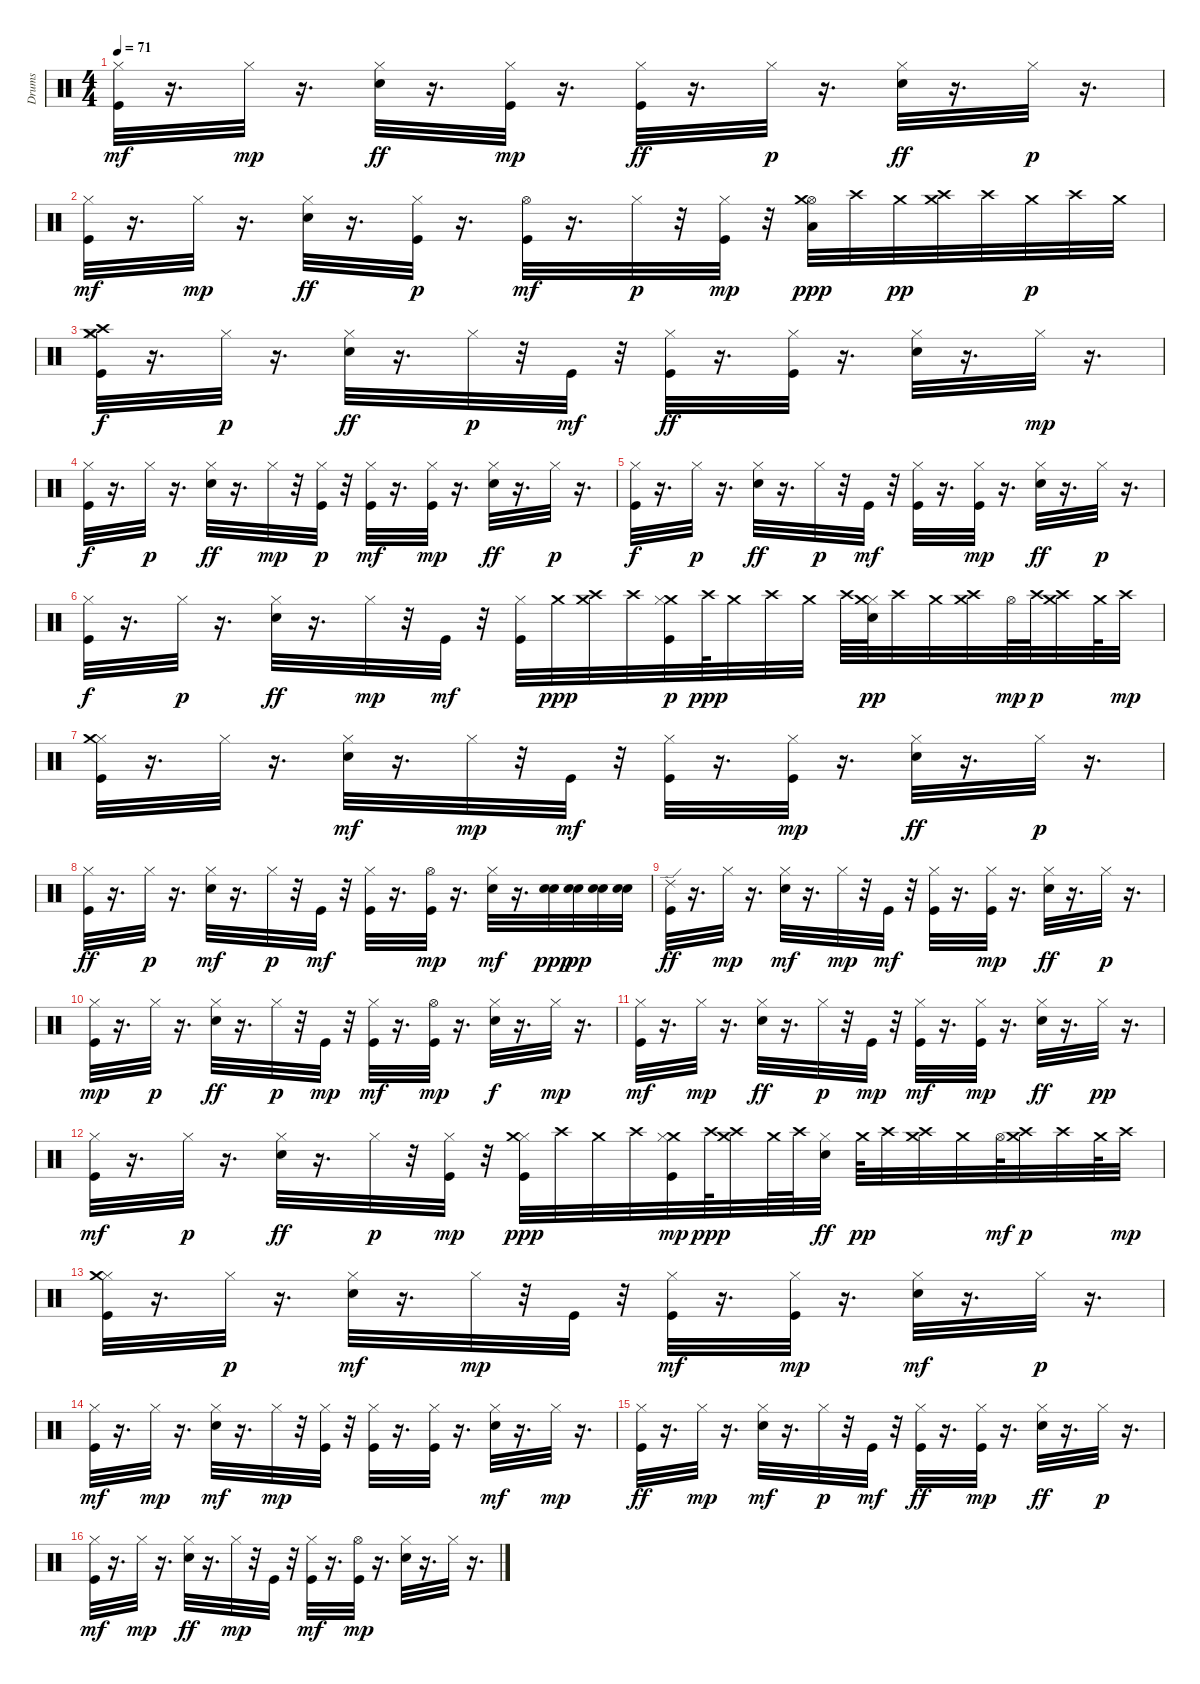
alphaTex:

\track ("Drums" "Drums") {instrument percussion}
\staff {score}
\articulation defaults
\ts (4 4)
\tempo 71
\clef neutral
\ks c
("Kick (hit)" "Hi-Hat (closed)").32{dy mf} r.16{d} "Hi-Hat (closed)".32{dy mp} r.16{d} ("Hi-Hat (closed)" "Snare (hit) 2").32{dy ff} r.16{d} ("Kick (hit)" "Hi-Hat (closed)").32{dy mp} r.16{d} ("Hi-Hat (closed)" "Kick (hit)").32{dy ff} r.16{d} "Hi-Hat (closed)".32{dy p} r.16{d} ("Hi-Hat (closed)" "Snare (hit) 2").32{dy ff} r.16{d} "Hi-Hat (closed)".32{dy p} r.16{d} |
("Kick (hit)" "Hi-Hat (closed)").32{dy mf} r.16{d} "Hi-Hat (closed)".32{dy mp} r.16{d} ("Hi-Hat (closed)" "Snare (hit) 2").32{dy ff} r.16{d} ("Kick (hit)" "Hi-Hat (closed)").32{dy p} r.16{d} ("Kick (hit)" "Hi-Hat (open)").32{dy mf} r.16{d} "Hi-Hat (closed)".32{dy p} r.32 ("Kick (hit)" "Hi-Hat (closed)").32{dy mp} r.32 ("Low Tom (hit)" "Hi-Hat (open)" "Crash medium (hit)").32{dy ppp} "Crash high (hit)".32 "Crash medium (hit)".32{dy pp} ("Crash high (hit)" "Crash medium (hit)").32 "Crash high (hit)".32 "Crash medium (hit)".32{dy p} "Crash high (hit)".32 "Crash medium (hit)".32 |
("Crash high (hit)" "Kick (hit)" "Hi-Hat (closed)" "Crash medium (hit)").32{dy f} r.16{d} "Hi-Hat (closed)".32{dy p} r.16{d} ("Snare (hit) 2" "Hi-Hat (closed)").32{dy ff} r.16{d} "Hi-Hat (closed)".32{dy p} r.32 "Kick (hit)".32{dy mf} r.32 ("Hi-Hat (closed)" "Kick (hit)").32{dy ff} r.16{d} ("Hi-Hat (closed)" "Kick (hit)").32 r.16{d} ("Hi-Hat (closed)" "Snare (hit) 2").32 r.16{d} "Hi-Hat (closed)".32{dy mp} r.16{d} |
("Hi-Hat (closed)" "Kick (hit)").32{dy f} r.16{d} "Hi-Hat (closed)".32{dy p} r.16{d} ("Hi-Hat (closed)" "Snare (hit) 2").32{dy ff} r.16{d} "Hi-Hat (closed)".32{dy mp} r.32 ("Kick (hit)" "Hi-Hat (closed)").32{dy p} r.32 ("Kick (hit)" "Hi-Hat (closed)").32{dy mf} r.16{d} ("Kick (hit)" "Hi-Hat (closed)").32{dy mp} r.16{d} ("Hi-Hat (closed)" "Snare (hit) 2").32{dy ff} r.16{d} "Hi-Hat (closed)".32{dy p} r.16{d} |
("Hi-Hat (closed)" "Kick (hit)").32{dy f} r.16{d} "Hi-Hat (closed)".32{dy p} r.16{d} ("Hi-Hat (closed)" "Snare (hit) 2").32{dy ff} r.16{d} "Hi-Hat (closed)".32{dy p} r.32 "Kick (hit)".32{dy mf} r.32 ("Kick (hit)" "Hi-Hat (closed)").32 r.16{d} ("Kick (hit)" "Hi-Hat (closed)").32{dy mp} r.16{d} ("Hi-Hat (closed)" "Snare (hit) 2").32{dy ff} r.16{d} "Hi-Hat (closed)".32{dy p} r.16{d} |
("Kick (hit)" "Hi-Hat (closed)").32{dy f} r.16{d} "Hi-Hat (closed)".32{dy p} r.16{d} ("Hi-Hat (closed)" "Snare (hit) 2").32{dy ff} r.16{d} "Hi-Hat (closed)".32{dy mp} r.32 "Kick (hit)".32{dy mf} r.32 ("Kick (hit)" "Hi-Hat (closed)").32 "Crash medium (hit)".32{dy ppp} ("Crash high (hit)" "Crash medium (hit)").32 "Crash high (hit)".32 ("Crash medium (hit)" "Kick (hit)" "Hi-Hat (closed)").32{dy p} "Crash high (hit)".64{dy ppp} "Crash medium (hit)".32 "Crash high (hit)".32 "Crash medium (hit)".32 "Crash high (hit)".64 ("Snare (hit) 2" "Hi-Hat (closed)" "Crash medium (hit)").64{dy pp} "Crash high (hit)".32 "Crash medium (hit)".32 ("Crash high (hit)" "Crash medium (hit)").32 "Hi-Hat (open)".64{dy mp} "Crash high (hit)".64{dy p} ("Crash medium (hit)" "Crash high (hit)").32 "Crash medium (hit)".64 "Crash high (hit)".32{dy mp} |
("Kick (hit)" "Hi-Hat (closed)" "Crash medium (hit)").32 r.16{d} "Hi-Hat (closed)".32 r.16{d} ("Snare (hit) 2" "Hi-Hat (closed)").32{dy mf} r.16{d} "Hi-Hat (closed)".32{dy mp} r.32 "Kick (hit)".32{dy mf} r.32 ("Kick (hit)" "Hi-Hat (closed)").32 r.16{d} ("Kick (hit)" "Hi-Hat (closed)").32{dy mp} r.16{d} ("Hi-Hat (closed)" "Snare (hit) 2").32{dy ff} r.16{d} "Hi-Hat (closed)".32{dy p} r.16{d} |
("Hi-Hat (closed)" "Kick (hit)").32{dy ff} r.16{d} "Hi-Hat (closed)".32{dy p} r.16{d} ("Hi-Hat (closed)" "Snare (hit) 2").32{dy mf} r.16{d} "Hi-Hat (closed)".32{dy p} r.32 "Kick (hit)".32{dy mf} r.32 ("Kick (hit)" "Hi-Hat (closed)").32 r.16{d} ("Kick (hit)" "Hi-Hat (open)").32{dy mp} r.16{d} ("Snare (hit) 2" "Hi-Hat (closed)").32{dy mf} r.16{d} ("Snare (hit) 2" "Snare (hit) 2").32{dy ppp} ("Snare (hit) 2" "Snare (hit) 2").32{dy pp} ("Snare (hit) 2" "Snare (hit) 2").32 ("Snare (hit) 2" "Snare (hit) 2").32 |
("Kick (hit)" "Ride (edge) 2").32{dy ff} r.16{d} "Hi-Hat (closed)".32{dy mp} r.16{d} ("Snare (hit) 2" "Hi-Hat (closed)").32{dy mf} r.16{d} "Hi-Hat (closed)".32{dy mp} r.32 "Kick (hit)".32{dy mf} r.32 ("Kick (hit)" "Hi-Hat (closed)").32 r.16{d} ("Kick (hit)" "Hi-Hat (closed)").32{dy mp} r.16{d} ("Hi-Hat (closed)" "Snare (hit) 2").32{dy ff} r.16{d} "Hi-Hat (closed)".32{dy p} r.16{d} |
("Hi-Hat (closed)" "Kick (hit)").32{dy mp} r.16{d} "Hi-Hat (closed)".32{dy p} r.16{d} ("Hi-Hat (closed)" "Snare (hit) 2").32{dy ff} r.16{d} "Hi-Hat (closed)".32{dy p} r.32 "Kick (hit)".32{dy mp} r.32 ("Kick (hit)" "Hi-Hat (closed)").32{dy mf} r.16{d} ("Kick (hit)" "Hi-Hat (open)").32{dy mp} r.16{d} ("Hi-Hat (closed)" "Snare (hit) 2").32{dy f} r.16{d} "Hi-Hat (closed)".32{dy mp} r.16{d} |
("Kick (hit)" "Hi-Hat (closed)").32{dy mf} r.16{d} "Hi-Hat (closed)".32{dy mp} r.16{d} ("Hi-Hat (closed)" "Snare (hit) 2").32{dy ff} r.16{d} "Hi-Hat (closed)".32{dy p} r.32 "Kick (hit)".32{dy mp} r.32 ("Kick (hit)" "Hi-Hat (closed)").32{dy mf} r.16{d} ("Kick (hit)" "Hi-Hat (closed)").32{dy mp} r.16{d} ("Hi-Hat (closed)" "Snare (hit) 2").32{dy ff} r.16{d} "Hi-Hat (closed)".32{dy pp} r.16{d} |
("Kick (hit)" "Hi-Hat (closed)").32{dy mf} r.16{d} "Hi-Hat (closed)".32{dy p} r.16{d} ("Hi-Hat (closed)" "Snare (hit) 2").32{dy ff} r.16{d} "Hi-Hat (closed)".32{dy p} r.32 ("Hi-Hat (closed)" "Kick (hit)").32{dy mp} r.32 ("Hi-Hat (closed)" "Kick (hit)" "Crash medium (hit)").32{dy ppp} "Crash high (hit)".32 "Crash medium (hit)".32 "Crash high (hit)".32 ("Crash medium (hit)" "Hi-Hat (closed)" "Kick (hit)").32{dy mp} "Crash high (hit)".64{dy ppp} ("Crash medium (hit)" "Crash high (hit)").32 "Crash medium (hit)".64 "Crash high (hit)".64 ("Hi-Hat (closed)" "Snare (hit) 2").32{dy ff} "Crash medium (hit)".64{dy pp} "Crash high (hit)".32 ("Crash medium (hit)" "Crash high (hit)").32 "Crash medium (hit)".32 "Hi-Hat (open)".64{dy mf} ("Crash high (hit)" "Crash medium (hit)").32{dy p} "Crash high (hit)".32 "Crash medium (hit)".64 "Crash high (hit)".32{dy mp} |
("Kick (hit)" "Hi-Hat (closed)" "Crash medium (hit)").32 r.16{d} "Hi-Hat (closed)".32{dy p} r.16{d} ("Snare (hit) 2" "Hi-Hat (closed)").32{dy mf} r.16{d} "Hi-Hat (closed)".32{dy mp} r.32 "Kick (hit)".32 r.32 ("Kick (hit)" "Hi-Hat (closed)").32{dy mf} r.16{d} ("Kick (hit)" "Hi-Hat (closed)").32{dy mp} r.16{d} ("Hi-Hat (closed)" "Snare (hit) 2").32{dy mf} r.16{d} "Hi-Hat (closed)".32{dy p} r.16{d} |
("Kick (hit)" "Hi-Hat (closed)").32{dy mf} r.16{d} "Hi-Hat (closed)".32{dy mp} r.16{d} ("Hi-Hat (closed)" "Snare (hit) 2").32{dy mf} r.16{d} "Hi-Hat (closed)".32{dy mp} r.32 ("Kick (hit)" "Hi-Hat (closed)").32 r.32 ("Kick (hit)" "Hi-Hat (closed)").32 r.16{d} ("Kick (hit)" "Hi-Hat (closed)").32 r.16{d} ("Snare (hit) 2" "Hi-Hat (closed)").32{dy mf} r.16{d} "Hi-Hat (closed)".32{dy mp} r.16{d} |
("Hi-Hat (closed)" "Kick (hit)").32{dy ff} r.16{d} "Hi-Hat (closed)".32{dy mp} r.16{d} ("Hi-Hat (closed)" "Snare (hit) 2").32{dy mf} r.16{d} "Hi-Hat (closed)".32{dy p} r.32 "Kick (hit)".32{dy mf} r.32 ("Hi-Hat (closed)" "Kick (hit)").32{dy ff} r.16{d} ("Kick (hit)" "Hi-Hat (closed)").32{dy mp} r.16{d} ("Hi-Hat (closed)" "Snare (hit) 2").32{dy ff} r.16{d} "Hi-Hat (closed)".32{dy p} r.16{d} |
("Kick (hit)" "Hi-Hat (closed)").32{dy mf} r.16{d} "Hi-Hat (closed)".32{dy mp} r.16{d} ("Hi-Hat (closed)" "Snare (hit) 2").32{dy ff} r.16{d} "Hi-Hat (closed)".32{dy mp} r.32 "Kick (hit)".32 r.32 ("Kick (hit)" "Hi-Hat (closed)").32{dy mf} r.16{d} ("Kick (hit)" "Hi-Hat (open)").32{dy mp} r.16{d} ("Snare (hit) 2" "Hi-Hat (closed)").32 r.16{d} "Hi-Hat (closed)".32 r.16{d}
